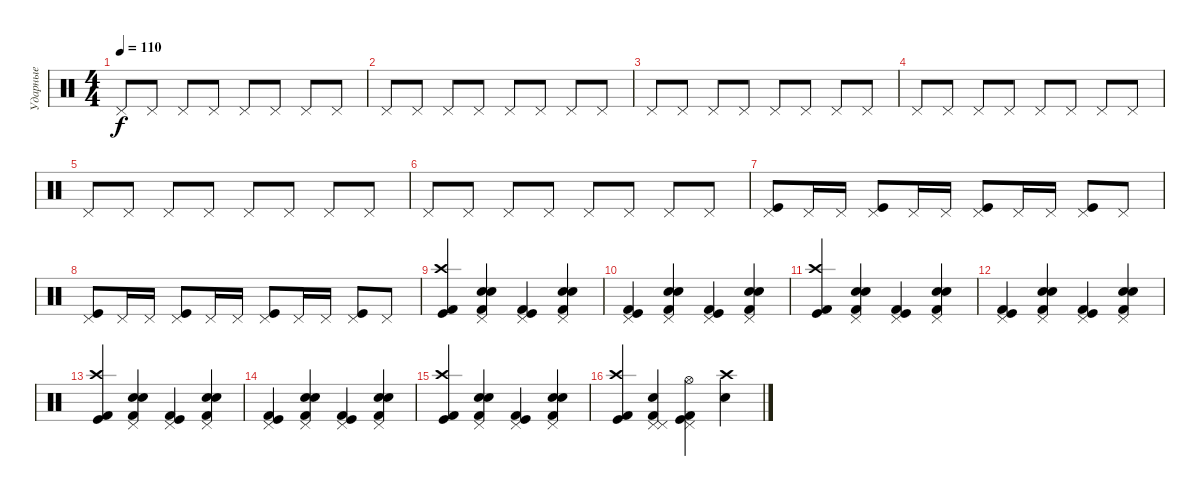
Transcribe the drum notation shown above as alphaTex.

\track ("Ударные" "Ударные") {instrument percussion}
\staff {score}
\articulation defaults
\ts (4 4)
\tempo 110
\clef neutral
\ks c "Pedal Hi-Hat (hit)".8{dy f} "Pedal Hi-Hat (hit)".8 "Pedal Hi-Hat (hit)".8 "Pedal Hi-Hat (hit)".8 "Pedal Hi-Hat (hit)".8 "Pedal Hi-Hat (hit)".8 "Pedal Hi-Hat (hit)".8 "Pedal Hi-Hat (hit)".8
|
"Pedal Hi-Hat (hit)".8 "Pedal Hi-Hat (hit)".8 "Pedal Hi-Hat (hit)".8 "Pedal Hi-Hat (hit)".8 "Pedal Hi-Hat (hit)".8 "Pedal Hi-Hat (hit)".8 "Pedal Hi-Hat (hit)".8 "Pedal Hi-Hat (hit)".8 |
"Pedal Hi-Hat (hit)".8 "Pedal Hi-Hat (hit)".8 "Pedal Hi-Hat (hit)".8 "Pedal Hi-Hat (hit)".8 "Pedal Hi-Hat (hit)".8 "Pedal Hi-Hat (hit)".8 "Pedal Hi-Hat (hit)".8 "Pedal Hi-Hat (hit)".8 |
"Pedal Hi-Hat (hit)".8 "Pedal Hi-Hat (hit)".8 "Pedal Hi-Hat (hit)".8 "Pedal Hi-Hat (hit)".8 "Pedal Hi-Hat (hit)".8 "Pedal Hi-Hat (hit)".8 "Pedal Hi-Hat (hit)".8 "Pedal Hi-Hat (hit)".8 |
"Pedal Hi-Hat (hit)".8 "Pedal Hi-Hat (hit)".8 "Pedal Hi-Hat (hit)".8 "Pedal Hi-Hat (hit)".8 "Pedal Hi-Hat (hit)".8 "Pedal Hi-Hat (hit)".8 "Pedal Hi-Hat (hit)".8 "Pedal Hi-Hat (hit)".8 |
"Pedal Hi-Hat (hit)".8 "Pedal Hi-Hat (hit)".8 "Pedal Hi-Hat (hit)".8 "Pedal Hi-Hat (hit)".8 "Pedal Hi-Hat (hit)".8 "Pedal Hi-Hat (hit)".8 "Pedal Hi-Hat (hit)".8 "Pedal Hi-Hat (hit)".8 |
("Pedal Hi-Hat (hit)" "Kick (hit)").8 "Pedal Hi-Hat (hit)".16 "Pedal Hi-Hat (hit)".16 ("Pedal Hi-Hat (hit)" "Kick (hit)").8 "Pedal Hi-Hat (hit)".16 "Pedal Hi-Hat (hit)".16 ("Pedal Hi-Hat (hit)" "Kick (hit)").8 "Pedal Hi-Hat (hit)".16 "Pedal Hi-Hat (hit)".16 ("Pedal Hi-Hat (hit)" "Kick (hit)").8 "Pedal Hi-Hat (hit)".8 |
("Pedal Hi-Hat (hit)" "Kick (hit)").8 "Pedal Hi-Hat (hit)".16 "Pedal Hi-Hat (hit)".16 ("Pedal Hi-Hat (hit)" "Kick (hit)").8 "Pedal Hi-Hat (hit)".16 "Pedal Hi-Hat (hit)".16 ("Pedal Hi-Hat (hit)" "Kick (hit)").8 "Pedal Hi-Hat (hit)".16 "Pedal Hi-Hat (hit)".16 ("Pedal Hi-Hat (hit)" "Kick (hit)").8 "Pedal Hi-Hat (hit)".8 |
("Crash high (hit)" "Kick (hit)" "Kick (hit) 2").4 ("Electric Snare (hit)" "Snare (hit) 2" "Pedal Hi-Hat (hit)" "Kick (hit) 2").4 ("Pedal Hi-Hat (hit)" "Kick (hit)" "Kick (hit) 2").4 ("Electric Snare (hit)" "Snare (hit) 2" "Pedal Hi-Hat (hit)" "Kick (hit) 2").4 |
("Pedal Hi-Hat (hit)" "Kick (hit)" "Kick (hit) 2").4 ("Electric Snare (hit)" "Snare (hit) 2" "Pedal Hi-Hat (hit)" "Kick (hit) 2").4 ("Pedal Hi-Hat (hit)" "Kick (hit)" "Kick (hit) 2").4 ("Electric Snare (hit)" "Snare (hit) 2" "Pedal Hi-Hat (hit)" "Kick (hit) 2").4 |
("Crash high (hit)" "Kick (hit)" "Kick (hit) 2").4 ("Electric Snare (hit)" "Snare (hit) 2" "Pedal Hi-Hat (hit)" "Kick (hit) 2").4 ("Pedal Hi-Hat (hit)" "Kick (hit)" "Kick (hit) 2").4 ("Electric Snare (hit)" "Snare (hit) 2" "Pedal Hi-Hat (hit)" "Kick (hit) 2").4 |
("Pedal Hi-Hat (hit)" "Kick (hit)" "Kick (hit) 2").4 ("Electric Snare (hit)" "Snare (hit) 2" "Pedal Hi-Hat (hit)" "Kick (hit) 2").4 ("Pedal Hi-Hat (hit)" "Kick (hit)" "Kick (hit) 2").4 ("Electric Snare (hit)" "Snare (hit) 2" "Pedal Hi-Hat (hit)" "Kick (hit) 2").4 |
("Crash high (hit)" "Kick (hit)" "Kick (hit) 2").4 ("Electric Snare (hit)" "Snare (hit) 2" "Pedal Hi-Hat (hit)" "Kick (hit) 2").4 ("Pedal Hi-Hat (hit)" "Kick (hit)" "Kick (hit) 2").4 ("Electric Snare (hit)" "Snare (hit) 2" "Pedal Hi-Hat (hit)" "Kick (hit) 2").4 |
("Pedal Hi-Hat (hit)" "Kick (hit)" "Kick (hit) 2").4 ("Electric Snare (hit)" "Snare (hit) 2" "Pedal Hi-Hat (hit)" "Kick (hit) 2").4 ("Pedal Hi-Hat (hit)" "Kick (hit)" "Kick (hit) 2").4 ("Electric Snare (hit)" "Snare (hit) 2" "Pedal Hi-Hat (hit)" "Kick (hit) 2").4 |
("Crash high (hit)" "Kick (hit)" "Kick (hit) 2").4 ("Electric Snare (hit)" "Snare (hit) 2" "Pedal Hi-Hat (hit)" "Kick (hit) 2").4 ("Pedal Hi-Hat (hit)" "Kick (hit)" "Kick (hit) 2").4 ("Electric Snare (hit)" "Snare (hit) 2" "Pedal Hi-Hat (hit)" "Kick (hit) 2").4 |
("Crash high (hit)" "Kick (hit)" "Kick (hit) 2").4 ("Pedal Hi-Hat (hit)" "Pedal Hi-Hat (hit)" "Kick (hit) 2" "Electric Snare (hit)").4 ("Pedal Hi-Hat (hit)" "Kick (hit)" "Kick (hit) 2" "Hi-Hat (open)").4 ("Crash high (hit)" "Electric Snare (hit)").4
